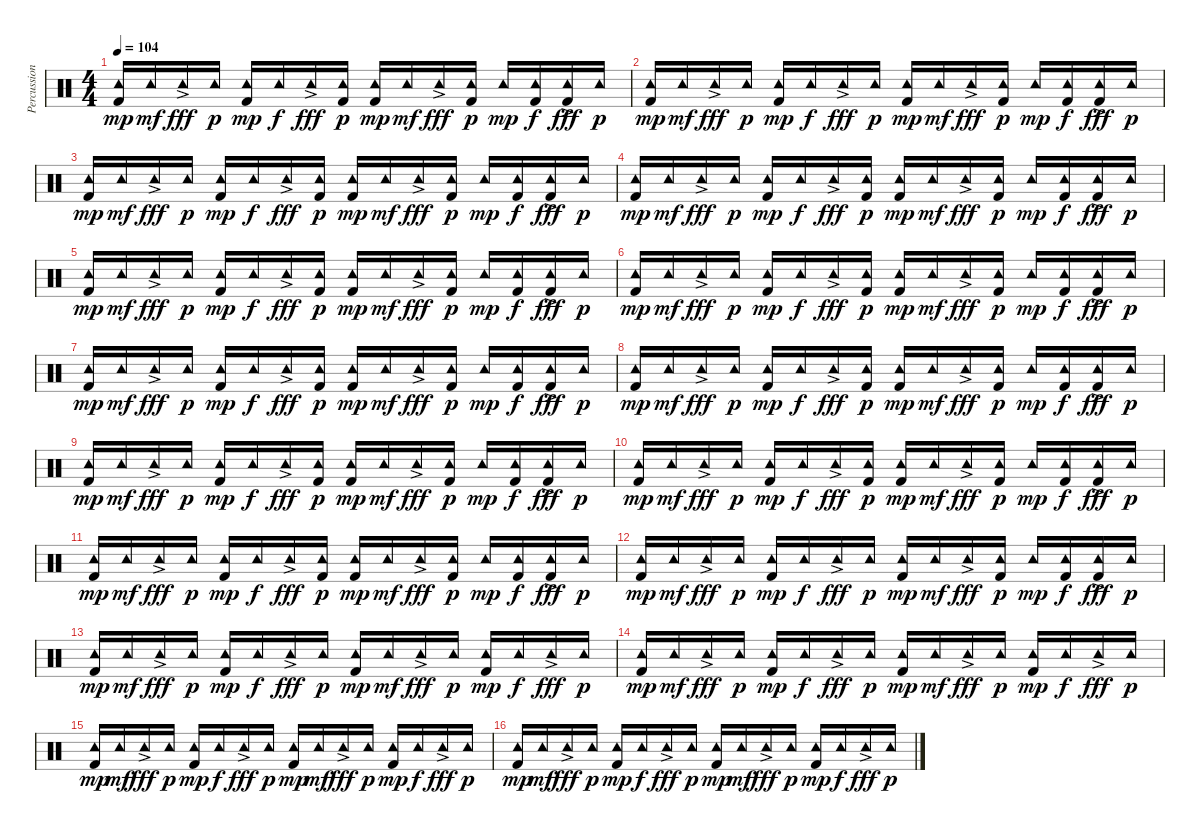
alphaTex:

\track ("Percussion" "Percussion") {instrument percussion}
\staff {score}
\articulation defaults
\ts (4 4)
\tempo 104
\clef neutral
\ks c
("Kick (hit) 2" "Tambourine (hit)").16{dy mp} "Tambourine (hit)".16{dy mf} "Tambourine (hit)"{ac}.16{dy fff} "Tambourine (hit)".16{dy p} ("Kick (hit) 2" "Tambourine (hit)").16{dy mp} "Tambourine (hit)".16{dy f} "Tambourine (hit)"{ac}.16{dy fff} ("Kick (hit) 2" "Tambourine (hit)").16{dy p} ("Kick (hit) 2" "Tambourine (hit)").16{dy mp} "Tambourine (hit)".16{dy mf} "Tambourine (hit)"{ac}.16{dy fff} ("Kick (hit) 2" "Tambourine (hit)").16{dy p} "Tambourine (hit)".16{dy mp} ("Kick (hit) 2" "Tambourine (hit)").16{dy f} ("Kick (hit) 2" "Tambourine (hit)"{ac}).16{dy fff} "Tambourine (hit)".16{dy p} |
("Kick (hit) 2" "Tambourine (hit)").16{dy mp} "Tambourine (hit)".16{dy mf} "Tambourine (hit)"{ac}.16{dy fff} "Tambourine (hit)".16{dy p} ("Kick (hit) 2" "Tambourine (hit)").16{dy mp} "Tambourine (hit)".16{dy f} "Tambourine (hit)"{ac}.16{dy fff} "Tambourine (hit)".16{dy p} ("Kick (hit) 2" "Tambourine (hit)").16{dy mp} "Tambourine (hit)".16{dy mf} "Tambourine (hit)"{ac}.16{dy fff} ("Kick (hit) 2" "Tambourine (hit)").16{dy p} "Tambourine (hit)".16{dy mp} ("Kick (hit) 2" "Tambourine (hit)").16{dy f} ("Kick (hit) 2" "Tambourine (hit)"{ac}).16{dy fff} "Tambourine (hit)".16{dy p} |
("Kick (hit) 2" "Tambourine (hit)").16{dy mp} "Tambourine (hit)".16{dy mf} "Tambourine (hit)"{ac}.16{dy fff} "Tambourine (hit)".16{dy p} ("Kick (hit) 2" "Tambourine (hit)").16{dy mp} "Tambourine (hit)".16{dy f} "Tambourine (hit)"{ac}.16{dy fff} ("Kick (hit) 2" "Tambourine (hit)").16{dy p} ("Kick (hit) 2" "Tambourine (hit)").16{dy mp} "Tambourine (hit)".16{dy mf} "Tambourine (hit)"{ac}.16{dy fff} ("Kick (hit) 2" "Tambourine (hit)").16{dy p} "Tambourine (hit)".16{dy mp} ("Kick (hit) 2" "Tambourine (hit)").16{dy f} ("Kick (hit) 2" "Tambourine (hit)"{ac}).16{dy fff} "Tambourine (hit)".16{dy p} |
("Kick (hit) 2" "Tambourine (hit)").16{dy mp} "Tambourine (hit)".16{dy mf} "Tambourine (hit)"{ac}.16{dy fff} "Tambourine (hit)".16{dy p} ("Kick (hit) 2" "Tambourine (hit)").16{dy mp} "Tambourine (hit)".16{dy f} "Tambourine (hit)"{ac}.16{dy fff} ("Kick (hit) 2" "Tambourine (hit)").16{dy p} ("Kick (hit) 2" "Tambourine (hit)").16{dy mp} "Tambourine (hit)".16{dy mf} "Tambourine (hit)"{ac}.16{dy fff} ("Kick (hit) 2" "Tambourine (hit)").16{dy p} "Tambourine (hit)".16{dy mp} ("Kick (hit) 2" "Tambourine (hit)").16{dy f} ("Kick (hit) 2" "Tambourine (hit)"{ac}).16{dy fff} "Tambourine (hit)".16{dy p} |
("Kick (hit) 2" "Tambourine (hit)").16{dy mp} "Tambourine (hit)".16{dy mf} "Tambourine (hit)"{ac}.16{dy fff} "Tambourine (hit)".16{dy p} ("Kick (hit) 2" "Tambourine (hit)").16{dy mp} "Tambourine (hit)".16{dy f} "Tambourine (hit)"{ac}.16{dy fff} ("Kick (hit) 2" "Tambourine (hit)").16{dy p} ("Kick (hit) 2" "Tambourine (hit)").16{dy mp} "Tambourine (hit)".16{dy mf} "Tambourine (hit)"{ac}.16{dy fff} ("Kick (hit) 2" "Tambourine (hit)").16{dy p} "Tambourine (hit)".16{dy mp} ("Kick (hit) 2" "Tambourine (hit)").16{dy f} ("Kick (hit) 2" "Tambourine (hit)"{ac}).16{dy fff} "Tambourine (hit)".16{dy p} |
("Kick (hit) 2" "Tambourine (hit)").16{dy mp} "Tambourine (hit)".16{dy mf} "Tambourine (hit)"{ac}.16{dy fff} "Tambourine (hit)".16{dy p} ("Kick (hit) 2" "Tambourine (hit)").16{dy mp} "Tambourine (hit)".16{dy f} "Tambourine (hit)"{ac}.16{dy fff} ("Kick (hit) 2" "Tambourine (hit)").16{dy p} ("Kick (hit) 2" "Tambourine (hit)").16{dy mp} "Tambourine (hit)".16{dy mf} "Tambourine (hit)"{ac}.16{dy fff} ("Kick (hit) 2" "Tambourine (hit)").16{dy p} "Tambourine (hit)".16{dy mp} ("Kick (hit) 2" "Tambourine (hit)").16{dy f} ("Kick (hit) 2" "Tambourine (hit)"{ac}).16{dy fff} "Tambourine (hit)".16{dy p} |
("Kick (hit) 2" "Tambourine (hit)").16{dy mp} "Tambourine (hit)".16{dy mf} "Tambourine (hit)"{ac}.16{dy fff} "Tambourine (hit)".16{dy p} ("Kick (hit) 2" "Tambourine (hit)").16{dy mp} "Tambourine (hit)".16{dy f} "Tambourine (hit)"{ac}.16{dy fff} ("Kick (hit) 2" "Tambourine (hit)").16{dy p} ("Kick (hit) 2" "Tambourine (hit)").16{dy mp} "Tambourine (hit)".16{dy mf} "Tambourine (hit)"{ac}.16{dy fff} ("Kick (hit) 2" "Tambourine (hit)").16{dy p} "Tambourine (hit)".16{dy mp} ("Kick (hit) 2" "Tambourine (hit)").16{dy f} ("Kick (hit) 2" "Tambourine (hit)"{ac}).16{dy fff} "Tambourine (hit)".16{dy p} |
("Kick (hit) 2" "Tambourine (hit)").16{dy mp} "Tambourine (hit)".16{dy mf} "Tambourine (hit)"{ac}.16{dy fff} "Tambourine (hit)".16{dy p} ("Kick (hit) 2" "Tambourine (hit)").16{dy mp} "Tambourine (hit)".16{dy f} "Tambourine (hit)"{ac}.16{dy fff} ("Kick (hit) 2" "Tambourine (hit)").16{dy p} ("Kick (hit) 2" "Tambourine (hit)").16{dy mp} "Tambourine (hit)".16{dy mf} "Tambourine (hit)"{ac}.16{dy fff} ("Kick (hit) 2" "Tambourine (hit)").16{dy p} "Tambourine (hit)".16{dy mp} ("Kick (hit) 2" "Tambourine (hit)").16{dy f} ("Kick (hit) 2" "Tambourine (hit)"{ac}).16{dy fff} "Tambourine (hit)".16{dy p} |
("Kick (hit) 2" "Tambourine (hit)").16{dy mp} "Tambourine (hit)".16{dy mf} "Tambourine (hit)"{ac}.16{dy fff} "Tambourine (hit)".16{dy p} ("Kick (hit) 2" "Tambourine (hit)").16{dy mp} "Tambourine (hit)".16{dy f} "Tambourine (hit)"{ac}.16{dy fff} ("Kick (hit) 2" "Tambourine (hit)").16{dy p} ("Kick (hit) 2" "Tambourine (hit)").16{dy mp} "Tambourine (hit)".16{dy mf} "Tambourine (hit)"{ac}.16{dy fff} ("Kick (hit) 2" "Tambourine (hit)").16{dy p} "Tambourine (hit)".16{dy mp} ("Kick (hit) 2" "Tambourine (hit)").16{dy f} ("Kick (hit) 2" "Tambourine (hit)"{ac}).16{dy fff} "Tambourine (hit)".16{dy p} |
("Kick (hit) 2" "Tambourine (hit)").16{dy mp} "Tambourine (hit)".16{dy mf} "Tambourine (hit)"{ac}.16{dy fff} "Tambourine (hit)".16{dy p} ("Kick (hit) 2" "Tambourine (hit)").16{dy mp} "Tambourine (hit)".16{dy f} "Tambourine (hit)"{ac}.16{dy fff} ("Kick (hit) 2" "Tambourine (hit)").16{dy p} ("Kick (hit) 2" "Tambourine (hit)").16{dy mp} "Tambourine (hit)".16{dy mf} "Tambourine (hit)"{ac}.16{dy fff} ("Kick (hit) 2" "Tambourine (hit)").16{dy p} "Tambourine (hit)".16{dy mp} ("Kick (hit) 2" "Tambourine (hit)").16{dy f} ("Kick (hit) 2" "Tambourine (hit)"{ac}).16{dy fff} "Tambourine (hit)".16{dy p} |
("Kick (hit) 2" "Tambourine (hit)").16{dy mp} "Tambourine (hit)".16{dy mf} "Tambourine (hit)"{ac}.16{dy fff} "Tambourine (hit)".16{dy p} ("Kick (hit) 2" "Tambourine (hit)").16{dy mp} "Tambourine (hit)".16{dy f} "Tambourine (hit)"{ac}.16{dy fff} ("Kick (hit) 2" "Tambourine (hit)").16{dy p} ("Kick (hit) 2" "Tambourine (hit)").16{dy mp} "Tambourine (hit)".16{dy mf} "Tambourine (hit)"{ac}.16{dy fff} ("Kick (hit) 2" "Tambourine (hit)").16{dy p} "Tambourine (hit)".16{dy mp} ("Kick (hit) 2" "Tambourine (hit)").16{dy f} ("Kick (hit) 2" "Tambourine (hit)"{ac}).16{dy fff} "Tambourine (hit)".16{dy p} |
("Kick (hit) 2" "Tambourine (hit)").16{dy mp} "Tambourine (hit)".16{dy mf} "Tambourine (hit)"{ac}.16{dy fff} "Tambourine (hit)".16{dy p} ("Kick (hit) 2" "Tambourine (hit)").16{dy mp} "Tambourine (hit)".16{dy f} "Tambourine (hit)"{ac}.16{dy fff} "Tambourine (hit)".16{dy p} ("Kick (hit) 2" "Tambourine (hit)").16{dy mp} "Tambourine (hit)".16{dy mf} "Tambourine (hit)"{ac}.16{dy fff} ("Kick (hit) 2" "Tambourine (hit)").16{dy p} "Tambourine (hit)".16{dy mp} ("Kick (hit) 2" "Tambourine (hit)").16{dy f} ("Kick (hit) 2" "Tambourine (hit)"{ac}).16{dy fff} "Tambourine (hit)".16{dy p} |
("Kick (hit) 2" "Tambourine (hit)").16{dy mp} "Tambourine (hit)".16{dy mf} "Tambourine (hit)"{ac}.16{dy fff} "Tambourine (hit)".16{dy p} ("Kick (hit) 2" "Tambourine (hit)").16{dy mp} "Tambourine (hit)".16{dy f} "Tambourine (hit)"{ac}.16{dy fff} "Tambourine (hit)".16{dy p} ("Kick (hit) 2" "Tambourine (hit)").16{dy mp} "Tambourine (hit)".16{dy mf} "Tambourine (hit)"{ac}.16{dy fff} "Tambourine (hit)".16{dy p} ("Kick (hit) 2" "Tambourine (hit)").16{dy mp} "Tambourine (hit)".16{dy f} "Tambourine (hit)"{ac}.16{dy fff} "Tambourine (hit)".16{dy p} |
("Kick (hit) 2" "Tambourine (hit)").16{dy mp} "Tambourine (hit)".16{dy mf} "Tambourine (hit)"{ac}.16{dy fff} "Tambourine (hit)".16{dy p} ("Kick (hit) 2" "Tambourine (hit)").16{dy mp} "Tambourine (hit)".16{dy f} "Tambourine (hit)"{ac}.16{dy fff} "Tambourine (hit)".16{dy p} ("Kick (hit) 2" "Tambourine (hit)").16{dy mp} "Tambourine (hit)".16{dy mf} "Tambourine (hit)"{ac}.16{dy fff} "Tambourine (hit)".16{dy p} ("Kick (hit) 2" "Tambourine (hit)").16{dy mp} "Tambourine (hit)".16{dy f} "Tambourine (hit)"{ac}.16{dy fff} "Tambourine (hit)".16{dy p} |
("Kick (hit) 2" "Tambourine (hit)").16{dy mp} "Tambourine (hit)".16{dy mf} "Tambourine (hit)"{ac}.16{dy fff} "Tambourine (hit)".16{dy p} ("Kick (hit) 2" "Tambourine (hit)").16{dy mp} "Tambourine (hit)".16{dy f} "Tambourine (hit)"{ac}.16{dy fff} "Tambourine (hit)".16{dy p} ("Kick (hit) 2" "Tambourine (hit)").16{dy mp} "Tambourine (hit)".16{dy mf} "Tambourine (hit)"{ac}.16{dy fff} "Tambourine (hit)".16{dy p} ("Kick (hit) 2" "Tambourine (hit)").16{dy mp} "Tambourine (hit)".16{dy f} "Tambourine (hit)"{ac}.16{dy fff} "Tambourine (hit)".16{dy p} |
("Kick (hit) 2" "Tambourine (hit)").16{dy mp} "Tambourine (hit)".16{dy mf} "Tambourine (hit)"{ac}.16{dy fff} "Tambourine (hit)".16{dy p} ("Kick (hit) 2" "Tambourine (hit)").16{dy mp} "Tambourine (hit)".16{dy f} "Tambourine (hit)"{ac}.16{dy fff} "Tambourine (hit)".16{dy p} ("Kick (hit) 2" "Tambourine (hit)").16{dy mp} "Tambourine (hit)".16{dy mf} "Tambourine (hit)"{ac}.16{dy fff} "Tambourine (hit)".16{dy p} ("Kick (hit) 2" "Tambourine (hit)").16{dy mp} "Tambourine (hit)".16{dy f} "Tambourine (hit)"{ac}.16{dy fff} "Tambourine (hit)".16{dy p}
